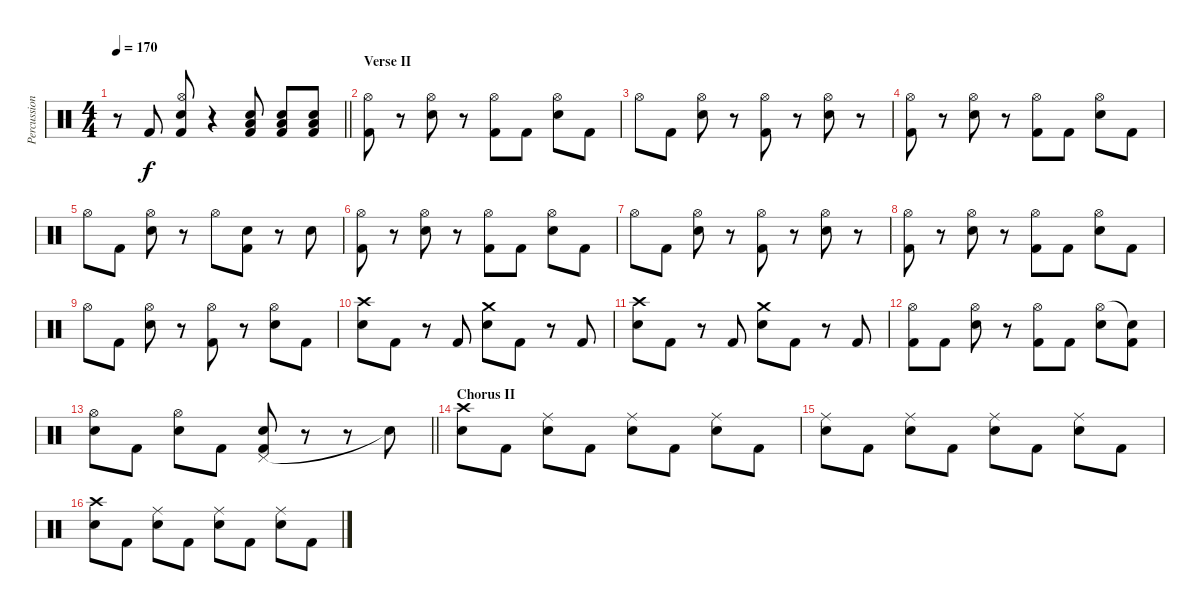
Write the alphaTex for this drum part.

\track ("Percussion" "Percussion") {instrument percussion}
\staff {score}
\articulation defaults
\ts (4 4)
\tempo 170
\clef neutral
\barLineRight lightlight
\ks c
r.8{dy f} "Kick (hit) 2".8 ("Hi-Hat (open)" "Electric Snare (hit)" "Kick (hit) 2").8 r.4 ("Electric Snare (hit)" "Low Floor Tom (hit)" "Kick (hit) 2").8 ("Electric Snare (hit)" "Low Floor Tom (hit)" "Kick (hit) 2").8 ("Electric Snare (hit)" "Low Floor Tom (hit)" "Kick (hit) 2").8 |
\section ("" "Verse II")
("Hi-Hat (open)" "Kick (hit) 2").8 r.8 ("Hi-Hat (open)" "Electric Snare (hit)").8 r.8 ("Hi-Hat (open)" "Kick (hit) 2").8 "Kick (hit) 2".8 ("Hi-Hat (open)" "Electric Snare (hit)").8 "Kick (hit) 2".8 |
"Hi-Hat (open)".8 "Kick (hit) 2".8 ("Hi-Hat (open)" "Electric Snare (hit)").8 r.8 ("Hi-Hat (open)" "Kick (hit) 2").8 r.8 ("Hi-Hat (open)" "Electric Snare (hit)").8 r.8 |
("Hi-Hat (open)" "Kick (hit) 2").8 r.8 ("Hi-Hat (open)" "Electric Snare (hit)").8 r.8 ("Hi-Hat (open)" "Kick (hit) 2").8 "Kick (hit) 2".8 ("Hi-Hat (open)" "Electric Snare (hit)").8 "Kick (hit) 2".8 |
"Hi-Hat (open)".8 "Kick (hit) 2".8 ("Hi-Hat (open)" "Electric Snare (hit)").8 r.8 "Hi-Hat (open)".8 ("Electric Snare (hit)" "Kick (hit) 2").8 r.8 "Electric Snare (hit)".8 |
("Hi-Hat (open)" "Kick (hit) 2").8 r.8 ("Hi-Hat (open)" "Electric Snare (hit)").8 r.8 ("Hi-Hat (open)" "Kick (hit) 2").8 "Kick (hit) 2".8 ("Hi-Hat (open)" "Electric Snare (hit)").8 "Kick (hit) 2".8 |
"Hi-Hat (open)".8 "Kick (hit) 2".8 ("Hi-Hat (open)" "Electric Snare (hit)").8 r.8 ("Hi-Hat (open)" "Kick (hit) 2").8 r.8 ("Hi-Hat (open)" "Electric Snare (hit)").8 r.8 |
("Hi-Hat (open)" "Kick (hit) 2").8 r.8 ("Hi-Hat (open)" "Electric Snare (hit)").8 r.8 ("Hi-Hat (open)" "Kick (hit) 2").8 "Kick (hit) 2".8 ("Hi-Hat (open)" "Electric Snare (hit)").8 "Kick (hit) 2".8 |
"Hi-Hat (open)".8 "Kick (hit) 2".8 ("Hi-Hat (open)" "Electric Snare (hit)").8 r.8 ("Hi-Hat (open)" "Kick (hit) 2").8 r.8 ("Hi-Hat (open)" "Electric Snare (hit)").8 "Kick (hit) 2".8 |
("Crash high (hit)" "Electric Snare (hit)").8 "Kick (hit) 2".8 r.8 "Kick (hit) 2".8 ("Crash medium (hit)" "Electric Snare (hit)").8 "Kick (hit) 2".8 r.8 "Kick (hit) 2".8 |
("Crash high (hit)" "Electric Snare (hit)").8 "Kick (hit) 2".8 r.8 "Kick (hit) 2".8 ("Crash medium (hit)" "Electric Snare (hit)").8 "Kick (hit) 2".8 r.8 "Kick (hit) 2".8 |
("Hi-Hat (open)" "Kick (hit) 2").8 "Kick (hit) 2".8 ("Hi-Hat (open)" "Electric Snare (hit)").8 r.8 ("Hi-Hat (open)" "Kick (hit) 2").8 "Kick (hit) 2".8 ("Hi-Hat (open)" "Electric Snare (hit)").8 ("Snare (hit)"{t} "Kick (hit) 2").8 |
\barLineRight lightlight
("Hi-Hat (open)" "Electric Snare (hit)").8 "Kick (hit) 2".8 ("Hi-Hat (open)" "Electric Snare (hit)").8 "Kick (hit) 2".8 ("Pedal Hi-Hat (hit)" "Electric Snare (hit)" "Kick (hit) 2").8 r.8 r.8 "Snare (hit)"{t}.8 |
\section ("" "Chorus II")
("Crash high (hit)" "Electric Snare (hit)").8 "Kick (hit) 2".8 ("Ride (middle)" "Electric Snare (hit)").8 "Kick (hit) 2".8 ("Ride (middle)" "Electric Snare (hit)").8 "Kick (hit) 2".8 ("Ride (middle)" "Electric Snare (hit)").8 "Kick (hit) 2".8 |
("Ride (middle)" "Electric Snare (hit)").8 "Kick (hit) 2".8 ("Ride (middle)" "Electric Snare (hit)").8 "Kick (hit) 2".8 ("Ride (middle)" "Electric Snare (hit)").8 "Kick (hit) 2".8 ("Ride (middle)" "Electric Snare (hit)").8 "Kick (hit) 2".8 |
("Crash high (hit)" "Electric Snare (hit)").8 "Kick (hit) 2".8 ("Ride (middle)" "Electric Snare (hit)").8 "Kick (hit) 2".8 ("Ride (middle)" "Electric Snare (hit)").8 "Kick (hit) 2".8 ("Ride (middle)" "Electric Snare (hit)").8 "Kick (hit) 2".8
